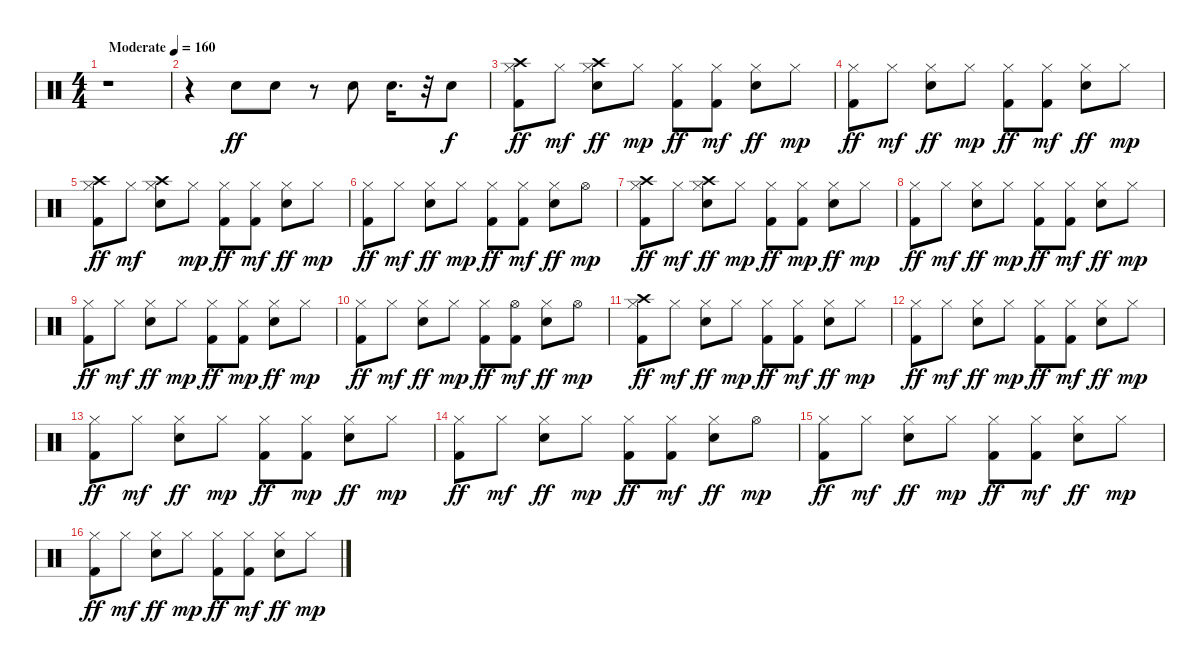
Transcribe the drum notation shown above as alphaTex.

\track "" {instrument percussion}
\staff {score}
\articulation defaults
\ts (4 4)
\tempo (160 "Moderate")
\clef neutral
\ks c
r.1{dy ff} |
r.4 "Snare (hit) 2".8 "Snare (hit) 2".8 r.8 "Snare (hit) 2".8 "Snare (hit) 2".16{d} r.32 "Snare (hit) 2".8{dy f} |
("Kick (hit) 2" "Hi-Hat (closed)" "Crash high (hit)").8{dy ff} "Hi-Hat (closed)".8{dy mf} ("Snare (hit) 2" "Crash high (hit)" "Hi-Hat (closed)").8{dy ff} "Hi-Hat (closed)".8{dy mp} ("Hi-Hat (closed)" "Kick (hit) 2").8{dy ff} ("Hi-Hat (closed)" "Kick (hit) 2").8{dy mf} ("Snare (hit) 2" "Hi-Hat (closed)").8{dy ff} "Hi-Hat (closed)".8{dy mp} |
("Hi-Hat (closed)" "Kick (hit) 2").8{dy ff} "Hi-Hat (closed)".8{dy mf} ("Snare (hit) 2" "Hi-Hat (closed)").8{dy ff} "Hi-Hat (closed)".8{dy mp} ("Hi-Hat (closed)" "Kick (hit) 2").8{dy ff} ("Hi-Hat (closed)" "Kick (hit) 2").8{dy mf} ("Snare (hit) 2" "Hi-Hat (closed)").8{dy ff} "Hi-Hat (closed)".8{dy mp} |
("Crash high (hit)" "Hi-Hat (closed)" "Kick (hit) 2").8{dy ff} "Hi-Hat (closed)".8{dy mf} ("Snare (hit) 2" "Hi-Hat (closed)" "Crash high (hit)").8 "Hi-Hat (closed)".8{dy mp} ("Kick (hit) 2" "Hi-Hat (closed)").8{dy ff} ("Hi-Hat (closed)" "Kick (hit) 2").8{dy mf} ("Hi-Hat (closed)" "Snare (hit) 2").8{dy ff} "Hi-Hat (closed)".8{dy mp} |
("Hi-Hat (closed)" "Kick (hit) 2").8{dy ff} "Hi-Hat (closed)".8{dy mf} ("Snare (hit) 2" "Hi-Hat (closed)").8{dy ff} "Hi-Hat (closed)".8{dy mp} ("Hi-Hat (closed)" "Kick (hit) 2").8{dy ff} ("Hi-Hat (closed)" "Kick (hit) 2").8{dy mf} ("Snare (hit) 2" "Hi-Hat (closed)").8{dy ff} "Hi-Hat (open)".8{dy mp} |
("Hi-Hat (closed)" "Crash high (hit)" "Kick (hit) 2").8{dy ff} "Hi-Hat (closed)".8{dy mf} ("Hi-Hat (closed)" "Crash high (hit)" "Snare (hit) 2").8{dy ff} "Hi-Hat (closed)".8{dy mp} ("Kick (hit) 2" "Hi-Hat (closed)").8{dy ff} ("Kick (hit) 2" "Hi-Hat (closed)").8{dy mp} ("Hi-Hat (closed)" "Snare (hit) 2").8{dy ff} "Hi-Hat (closed)".8{dy mp} |
("Hi-Hat (closed)" "Kick (hit) 2").8{dy ff} "Hi-Hat (closed)".8{dy mf} ("Snare (hit) 2" "Hi-Hat (closed)").8{dy ff} "Hi-Hat (closed)".8{dy mp} ("Hi-Hat (closed)" "Kick (hit) 2").8{dy ff} ("Hi-Hat (closed)" "Kick (hit) 2").8{dy mf} ("Hi-Hat (closed)" "Snare (hit) 2").8{dy ff} "Hi-Hat (closed)".8{dy mp} |
("Hi-Hat (closed)" "Kick (hit) 2").8{dy ff} "Hi-Hat (closed)".8{dy mf} ("Snare (hit) 2" "Hi-Hat (closed)").8{dy ff} "Hi-Hat (closed)".8{dy mp} ("Kick (hit) 2" "Hi-Hat (closed)").8{dy ff} ("Kick (hit) 2" "Hi-Hat (closed)").8{dy mp} ("Hi-Hat (closed)" "Snare (hit) 2").8{dy ff} "Hi-Hat (closed)".8{dy mp} |
("Hi-Hat (closed)" "Kick (hit) 2").8{dy ff} "Hi-Hat (closed)".8{dy mf} ("Snare (hit) 2" "Hi-Hat (closed)").8{dy ff} "Hi-Hat (closed)".8{dy mp} ("Hi-Hat (closed)" "Kick (hit) 2").8{dy ff} ("Hi-Hat (open)" "Kick (hit) 2").8{dy mf} ("Hi-Hat (closed)" "Snare (hit) 2").8{dy ff} "Hi-Hat (open)".8{dy mp} |
("Hi-Hat (closed)" "Kick (hit) 2" "Crash high (hit)").8{dy ff} "Hi-Hat (closed)".8{dy mf} ("Snare (hit) 2" "Hi-Hat (closed)").8{dy ff} "Hi-Hat (closed)".8{dy mp} ("Kick (hit) 2" "Hi-Hat (closed)").8{dy ff} ("Hi-Hat (closed)" "Kick (hit) 2").8{dy mf} ("Hi-Hat (closed)" "Snare (hit) 2").8{dy ff} "Hi-Hat (closed)".8{dy mp} |
("Hi-Hat (closed)" "Kick (hit) 2").8{dy ff} "Hi-Hat (closed)".8{dy mf} ("Snare (hit) 2" "Hi-Hat (closed)").8{dy ff} "Hi-Hat (closed)".8{dy mp} ("Hi-Hat (closed)" "Kick (hit) 2").8{dy ff} ("Hi-Hat (closed)" "Kick (hit) 2").8{dy mf} ("Hi-Hat (closed)" "Snare (hit) 2").8{dy ff} "Hi-Hat (closed)".8{dy mp} |
("Hi-Hat (closed)" "Kick (hit) 2").8{dy ff} "Hi-Hat (closed)".8{dy mf} ("Snare (hit) 2" "Hi-Hat (closed)").8{dy ff} "Hi-Hat (closed)".8{dy mp} ("Kick (hit) 2" "Hi-Hat (closed)").8{dy ff} ("Kick (hit) 2" "Hi-Hat (closed)").8{dy mp} ("Hi-Hat (closed)" "Snare (hit) 2").8{dy ff} "Hi-Hat (closed)".8{dy mp} |
("Hi-Hat (closed)" "Kick (hit) 2").8{dy ff} "Hi-Hat (closed)".8{dy mf} ("Snare (hit) 2" "Hi-Hat (closed)").8{dy ff} "Hi-Hat (closed)".8{dy mp} ("Hi-Hat (closed)" "Kick (hit) 2").8{dy ff} ("Hi-Hat (closed)" "Kick (hit) 2").8{dy mf} ("Hi-Hat (closed)" "Snare (hit) 2").8{dy ff} "Hi-Hat (open)".8{dy mp} |
("Kick (hit) 2" "Hi-Hat (closed)").8{dy ff} "Hi-Hat (closed)".8{dy mf} ("Snare (hit) 2" "Hi-Hat (closed)").8{dy ff} "Hi-Hat (closed)".8{dy mp} ("Hi-Hat (closed)" "Kick (hit) 2").8{dy ff} ("Hi-Hat (closed)" "Kick (hit) 2").8{dy mf} ("Hi-Hat (closed)" "Snare (hit) 2").8{dy ff} "Hi-Hat (closed)".8{dy mp} |
("Hi-Hat (closed)" "Kick (hit) 2").8{dy ff} "Hi-Hat (closed)".8{dy mf} ("Snare (hit) 2" "Hi-Hat (closed)").8{dy ff} "Hi-Hat (closed)".8{dy mp} ("Hi-Hat (closed)" "Kick (hit) 2").8{dy ff} ("Hi-Hat (closed)" "Kick (hit) 2").8{dy mf} ("Snare (hit) 2" "Hi-Hat (closed)").8{dy ff} "Hi-Hat (closed)".8{dy mp}
